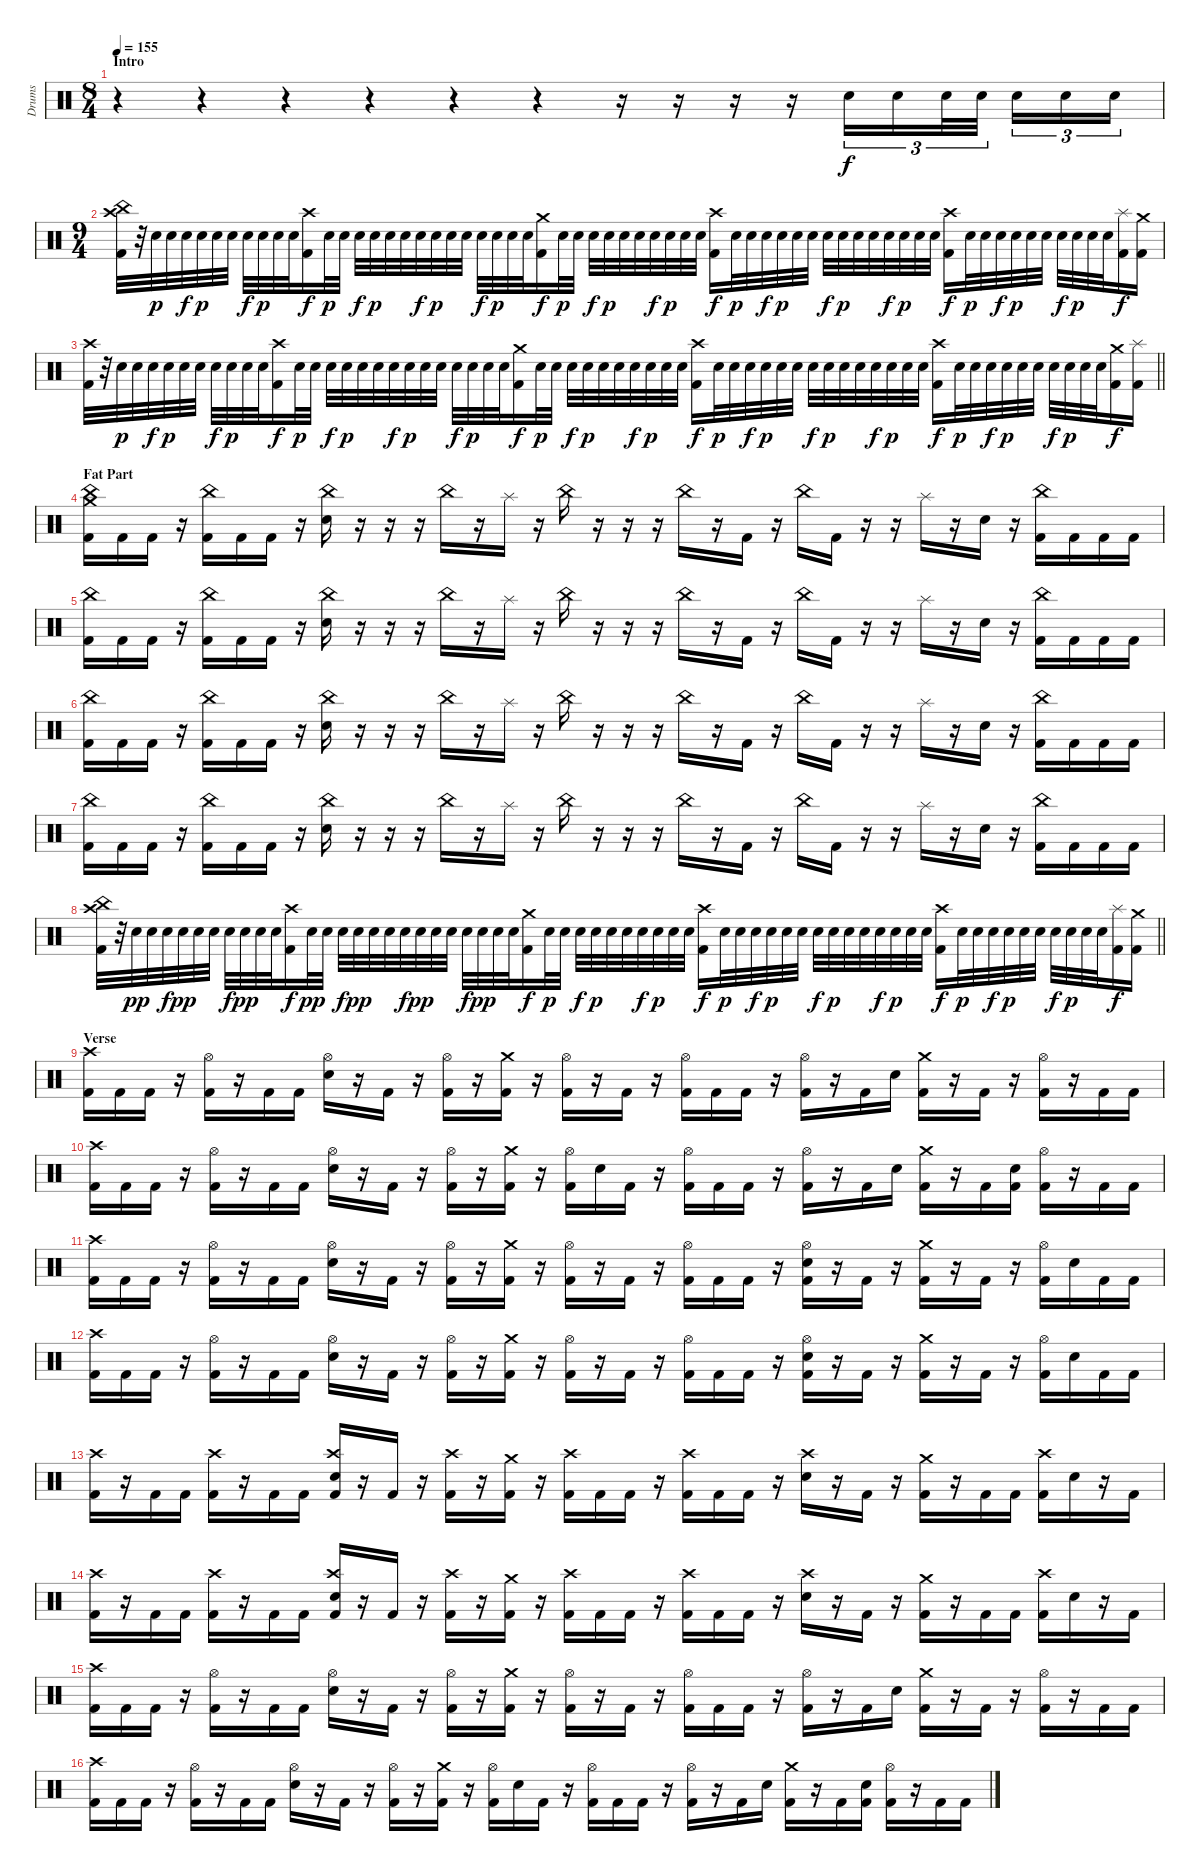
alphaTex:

\track ("Drums" "Drums") {instrument percussion}
\staff {score}
\articulation defaults
\ts (8 4)
\section ("" "Intro")
\tempo 155
\clef neutral
\ks c
r.4{dy f} r.4 r.4 r.4 r.4 r.4 r.16 r.16 r.16 r.16 "Electric Snare (hit)".16{tu (3 2)} "Electric Snare (hit)".16{tu (3 2)} "Electric Snare (hit)".32{tu (3 2)} "Electric Snare (hit)".32{tu (3 2) beam splitsecondary} "Electric Snare (hit)".16{tu (3 2)} "Electric Snare (hit)".16{tu (3 2)} "Electric Snare (hit)".16{tu (3 2)} |
\ts (9 4)
("Crash high (hit)" "China (hit)" "Kick (hit) 2").32 r.32 "Electric Snare (hit)".32{dy p} "Electric Snare (hit)".32 "Electric Snare (hit)".32{dy f} "Electric Snare (hit)".32{dy p} "Electric Snare (hit)".32 "Electric Snare (hit)".32 "Electric Snare (hit)".32{dy f} "Electric Snare (hit)".32{dy p} "Electric Snare (hit)".32 "Electric Snare (hit)".32 ("Crash high (hit)" "Kick (hit) 2").16{dy f} "Electric Snare (hit)".32{dy p} "Electric Snare (hit)".32 "Electric Snare (hit)".32{dy f} "Electric Snare (hit)".32{dy p} "Electric Snare (hit)".32 "Electric Snare (hit)".32 "Electric Snare (hit)".32{dy f} "Electric Snare (hit)".32{dy p} "Electric Snare (hit)".32 "Electric Snare (hit)".32 "Electric Snare (hit)".32{dy f} "Electric Snare (hit)".32{dy p} "Electric Snare (hit)".32 "Electric Snare (hit)".32 ("Crash medium (hit)" "Kick (hit) 2").16{dy f} "Electric Snare (hit)".32{dy p} "Electric Snare (hit)".32 "Electric Snare (hit)".32{dy f} "Electric Snare (hit)".32{dy p} "Electric Snare (hit)".32 "Electric Snare (hit)".32 "Electric Snare (hit)".32{dy f} "Electric Snare (hit)".32{dy p} "Electric Snare (hit)".32 "Electric Snare (hit)".32 ("Crash high (hit)" "Kick (hit) 2").16{dy f} "Electric Snare (hit)".32{dy p} "Electric Snare (hit)".32 "Electric Snare (hit)".32{dy f} "Electric Snare (hit)".32{dy p} "Electric Snare (hit)".32 "Electric Snare (hit)".32 "Electric Snare (hit)".32{dy f} "Electric Snare (hit)".32{dy p} "Electric Snare (hit)".32 "Electric Snare (hit)".32 "Electric Snare (hit)".32{dy f} "Electric Snare (hit)".32{dy p} "Electric Snare (hit)".32 "Electric Snare (hit)".32 ("Crash high (hit)" "Kick (hit) 2").16{dy f} "Electric Snare (hit)".32{dy p} "Electric Snare (hit)".32 "Electric Snare (hit)".32{dy f} "Electric Snare (hit)".32{dy p} "Electric Snare (hit)".32 "Electric Snare (hit)".32 "Electric Snare (hit)".32{dy f} "Electric Snare (hit)".32{dy p} "Electric Snare (hit)".32 "Electric Snare (hit)".32 ("Splash (hit)" "Kick (hit) 2").16{dy f} ("Crash medium (hit)" "Kick (hit) 2").16 |
\barLineRight lightlight
("Crash high (hit)" "Kick (hit) 2").32 r.32 "Electric Snare (hit)".32{dy p} "Electric Snare (hit)".32 "Electric Snare (hit)".32{dy f} "Electric Snare (hit)".32{dy p} "Electric Snare (hit)".32 "Electric Snare (hit)".32 "Electric Snare (hit)".32{dy f} "Electric Snare (hit)".32{dy p} "Electric Snare (hit)".32 "Electric Snare (hit)".32 ("Crash high (hit)" "Kick (hit) 2").16{dy f} "Electric Snare (hit)".32{dy p} "Electric Snare (hit)".32 "Electric Snare (hit)".32{dy f} "Electric Snare (hit)".32{dy p} "Electric Snare (hit)".32 "Electric Snare (hit)".32 "Electric Snare (hit)".32{dy f} "Electric Snare (hit)".32{dy p} "Electric Snare (hit)".32 "Electric Snare (hit)".32 "Electric Snare (hit)".32{dy f} "Electric Snare (hit)".32{dy p} "Electric Snare (hit)".32 "Electric Snare (hit)".32 ("Crash medium (hit)" "Kick (hit) 2").16{dy f} "Electric Snare (hit)".32{dy p} "Electric Snare (hit)".32 "Electric Snare (hit)".32{dy f} "Electric Snare (hit)".32{dy p} "Electric Snare (hit)".32 "Electric Snare (hit)".32 "Electric Snare (hit)".32{dy f} "Electric Snare (hit)".32{dy p} "Electric Snare (hit)".32 "Electric Snare (hit)".32 ("Crash high (hit)" "Kick (hit) 2").16{dy f} "Electric Snare (hit)".32{dy p} "Electric Snare (hit)".32 "Electric Snare (hit)".32{dy f} "Electric Snare (hit)".32{dy p} "Electric Snare (hit)".32 "Electric Snare (hit)".32 "Electric Snare (hit)".32{dy f} "Electric Snare (hit)".32{dy p} "Electric Snare (hit)".32 "Electric Snare (hit)".32 "Electric Snare (hit)".32{dy f} "Electric Snare (hit)".32{dy p} "Electric Snare (hit)".32 "Electric Snare (hit)".32 ("Crash high (hit)" "Kick (hit) 2").16{dy f} "Electric Snare (hit)".32{dy p} "Electric Snare (hit)".32 "Electric Snare (hit)".32{dy f} "Electric Snare (hit)".32{dy p} "Electric Snare (hit)".32 "Electric Snare (hit)".32 "Electric Snare (hit)".32{dy f} "Electric Snare (hit)".32{dy p} "Electric Snare (hit)".32 "Electric Snare (hit)".32 ("Crash medium (hit)" "Kick (hit) 2").16{dy f} ("Splash (hit)" "Kick (hit) 2").16 |
\section ("" "Fat Part")
("China (hit)" "Crash medium (hit)" "Kick (hit) 2").16 "Kick (hit) 2".16 "Kick (hit) 2".16 r.16 ("China (hit)" "Kick (hit) 2").16 "Kick (hit) 2".16 "Kick (hit) 2".16 r.16 ("China (hit)" "Electric Snare (hit)").16 r.16 r.16 r.16 "China (hit)".16 r.16 "Splash (hit)".16 r.16 "China (hit)".16 r.16 r.16 r.16 "China (hit)".16 r.16 "Kick (hit) 2".16 r.16 "China (hit)".16 "Kick (hit) 2".16 r.16 r.16 "Splash (hit)".16 r.16 "Electric Snare (hit)".16 r.16 ("China (hit)" "Kick (hit) 2").16 "Kick (hit) 2".16 "Kick (hit) 2".16 "Kick (hit) 2".16 |
("China (hit)" "Kick (hit) 2").16 "Kick (hit) 2".16 "Kick (hit) 2".16 r.16 ("China (hit)" "Kick (hit) 2").16 "Kick (hit) 2".16 "Kick (hit) 2".16 r.16 ("China (hit)" "Electric Snare (hit)").16 r.16 r.16 r.16 "China (hit)".16 r.16 "Splash (hit)".16 r.16 "China (hit)".16 r.16 r.16 r.16 "China (hit)".16 r.16 "Kick (hit) 2".16 r.16 "China (hit)".16 "Kick (hit) 2".16 r.16 r.16 "Splash (hit)".16 r.16 "Electric Snare (hit)".16 r.16 ("China (hit)" "Kick (hit) 2").16 "Kick (hit) 2".16 "Kick (hit) 2".16 "Kick (hit) 2".16 |
("China (hit)" "Kick (hit) 2").16 "Kick (hit) 2".16 "Kick (hit) 2".16 r.16 ("China (hit)" "Kick (hit) 2").16 "Kick (hit) 2".16 "Kick (hit) 2".16 r.16 ("China (hit)" "Electric Snare (hit)").16 r.16 r.16 r.16 "China (hit)".16 r.16 "Splash (hit)".16 r.16 "China (hit)".16 r.16 r.16 r.16 "China (hit)".16 r.16 "Kick (hit) 2".16 r.16 "China (hit)".16 "Kick (hit) 2".16 r.16 r.16 "Splash (hit)".16 r.16 "Electric Snare (hit)".16 r.16 ("China (hit)" "Kick (hit) 2").16 "Kick (hit) 2".16 "Kick (hit) 2".16 "Kick (hit) 2".16 |
("China (hit)" "Kick (hit) 2").16 "Kick (hit) 2".16 "Kick (hit) 2".16 r.16 ("China (hit)" "Kick (hit) 2").16 "Kick (hit) 2".16 "Kick (hit) 2".16 r.16 ("China (hit)" "Electric Snare (hit)").16 r.16 r.16 r.16 "China (hit)".16 r.16 "Splash (hit)".16 r.16 "China (hit)".16 r.16 r.16 r.16 "China (hit)".16 r.16 "Kick (hit) 2".16 r.16 "China (hit)".16 "Kick (hit) 2".16 r.16 r.16 "Splash (hit)".16 r.16 "Electric Snare (hit)".16 r.16 ("China (hit)" "Kick (hit) 2").16 "Kick (hit) 2".16 "Kick (hit) 2".16 "Kick (hit) 2".16 |
\barLineRight lightlight
("Crash high (hit)" "China (hit)" "Kick (hit) 2").32 r.32 "Electric Snare (hit)".32{dy pp} "Electric Snare (hit)".32 "Electric Snare (hit)".32{dy f} "Electric Snare (hit)".32{dy pp} "Electric Snare (hit)".32 "Electric Snare (hit)".32 "Electric Snare (hit)".32{dy f} "Electric Snare (hit)".32{dy pp} "Electric Snare (hit)".32 "Electric Snare (hit)".32 ("Crash high (hit)" "Kick (hit) 2").16{dy f} "Electric Snare (hit)".32{dy pp} "Electric Snare (hit)".32 "Electric Snare (hit)".32{dy f} "Electric Snare (hit)".32{dy pp} "Electric Snare (hit)".32 "Electric Snare (hit)".32 "Electric Snare (hit)".32{dy f} "Electric Snare (hit)".32{dy pp} "Electric Snare (hit)".32 "Electric Snare (hit)".32 "Electric Snare (hit)".32{dy f} "Electric Snare (hit)".32{dy pp} "Electric Snare (hit)".32 "Electric Snare (hit)".32 ("Crash medium (hit)" "Kick (hit) 2").16{dy f} "Electric Snare (hit)".32{dy p} "Electric Snare (hit)".32 "Electric Snare (hit)".32{dy f} "Electric Snare (hit)".32{dy p} "Electric Snare (hit)".32 "Electric Snare (hit)".32 "Electric Snare (hit)".32{dy f} "Electric Snare (hit)".32{dy p} "Electric Snare (hit)".32 "Electric Snare (hit)".32 ("Crash high (hit)" "Kick (hit) 2").16{dy f} "Electric Snare (hit)".32{dy p} "Electric Snare (hit)".32 "Electric Snare (hit)".32{dy f} "Electric Snare (hit)".32{dy p} "Electric Snare (hit)".32 "Electric Snare (hit)".32 "Electric Snare (hit)".32{dy f} "Electric Snare (hit)".32{dy p} "Electric Snare (hit)".32 "Electric Snare (hit)".32 "Electric Snare (hit)".32{dy f} "Electric Snare (hit)".32{dy p} "Electric Snare (hit)".32 "Electric Snare (hit)".32 ("Crash high (hit)" "Kick (hit) 2").16{dy f} "Electric Snare (hit)".32{dy p} "Electric Snare (hit)".32 "Electric Snare (hit)".32{dy f} "Electric Snare (hit)".32{dy p} "Electric Snare (hit)".32 "Electric Snare (hit)".32 "Electric Snare (hit)".32{dy f} "Electric Snare (hit)".32{dy p} "Electric Snare (hit)".32 "Electric Snare (hit)".32 ("Splash (hit)" "Kick (hit) 2").16{dy f} ("Crash medium (hit)" "Kick (hit) 2").16 |
\section ("" "Verse")
("Crash high (hit)" "Kick (hit) 2").16 "Kick (hit) 2".16 "Kick (hit) 2".16 r.16 ("Hi-Hat (open)" "Kick (hit) 2").16 r.16 "Kick (hit) 2".16 "Kick (hit) 2".16 ("Hi-Hat (open)" "Electric Snare (hit)").16 r.16 "Kick (hit) 2".16 r.16 ("Hi-Hat (open)" "Kick (hit) 2").16 r.16 ("Crash medium (hit)" "Kick (hit) 2").16 r.16 ("Hi-Hat (open)" "Kick (hit) 2").16 r.16 "Kick (hit) 2".16 r.16 ("Hi-Hat (open)" "Kick (hit) 2").16 "Kick (hit) 2".16 "Kick (hit) 2".16 r.16 ("Hi-Hat (open)" "Kick (hit) 2").16 r.16 "Kick (hit) 2".16 "Electric Snare (hit)".16 ("Crash medium (hit)" "Kick (hit) 2").16 r.16 "Kick (hit) 2".16 r.16 ("Hi-Hat (open)" "Kick (hit) 2").16 r.16 "Kick (hit) 2".16 "Kick (hit) 2".16 |
("Crash high (hit)" "Kick (hit) 2").16 "Kick (hit) 2".16 "Kick (hit) 2".16 r.16 ("Hi-Hat (open)" "Kick (hit) 2").16 r.16 "Kick (hit) 2".16 "Kick (hit) 2".16 ("Hi-Hat (open)" "Electric Snare (hit)").16 r.16 "Kick (hit) 2".16 r.16 ("Hi-Hat (open)" "Kick (hit) 2").16 r.16 ("Crash medium (hit)" "Kick (hit) 2").16 r.16 ("Hi-Hat (open)" "Kick (hit) 2").16 "Electric Snare (hit)".16 "Kick (hit) 2".16 r.16 ("Hi-Hat (open)" "Kick (hit) 2").16 "Kick (hit) 2".16 "Kick (hit) 2".16 r.16 ("Hi-Hat (open)" "Kick (hit) 2").16 r.16 "Kick (hit) 2".16 "Electric Snare (hit)".16 ("Crash medium (hit)" "Kick (hit) 2").16 r.16 "Kick (hit) 2".16 ("Electric Snare (hit)" "Kick (hit) 2").16 ("Hi-Hat (open)" "Kick (hit) 2").16 r.16 "Kick (hit) 2".16 "Kick (hit) 2".16 |
("Crash high (hit)" "Kick (hit) 2").16 "Kick (hit) 2".16 "Kick (hit) 2".16 r.16 ("Hi-Hat (open)" "Kick (hit) 2").16 r.16 "Kick (hit) 2".16 "Kick (hit) 2".16 ("Hi-Hat (open)" "Electric Snare (hit)").16 r.16 "Kick (hit) 2".16 r.16 ("Hi-Hat (open)" "Kick (hit) 2").16 r.16 ("Crash medium (hit)" "Kick (hit) 2").16 r.16 ("Hi-Hat (open)" "Kick (hit) 2").16 r.16 "Kick (hit) 2".16 r.16 ("Hi-Hat (open)" "Kick (hit) 2").16 "Kick (hit) 2".16 "Kick (hit) 2".16 r.16 ("Hi-Hat (open)" "Electric Snare (hit)" "Kick (hit) 2").16 r.16 "Kick (hit) 2".16 r.16 ("Crash medium (hit)" "Kick (hit) 2").16 r.16 "Kick (hit) 2".16 r.16 ("Hi-Hat (open)" "Kick (hit) 2").16 "Electric Snare (hit)".16 "Kick (hit) 2".16 "Kick (hit) 2".16 |
("Crash high (hit)" "Kick (hit) 2").16 "Kick (hit) 2".16 "Kick (hit) 2".16 r.16 ("Hi-Hat (open)" "Kick (hit) 2").16 r.16 "Kick (hit) 2".16 "Kick (hit) 2".16 ("Hi-Hat (open)" "Electric Snare (hit)").16 r.16 "Kick (hit) 2".16 r.16 ("Hi-Hat (open)" "Kick (hit) 2").16 r.16 ("Crash medium (hit)" "Kick (hit) 2").16 r.16 ("Hi-Hat (open)" "Kick (hit) 2").16 r.16 "Kick (hit) 2".16 r.16 ("Hi-Hat (open)" "Kick (hit) 2").16 "Kick (hit) 2".16 "Kick (hit) 2".16 r.16 ("Hi-Hat (open)" "Electric Snare (hit)" "Kick (hit) 2").16 r.16 "Kick (hit) 2".16 r.16 ("Crash medium (hit)" "Kick (hit) 2").16 r.16 "Kick (hit) 2".16 r.16 ("Hi-Hat (open)" "Kick (hit) 2").16 "Electric Snare (hit)".16 "Kick (hit) 2".16 "Kick (hit) 2".16 |
("Crash high (hit)" "Kick (hit) 2").16 r.16 "Kick (hit) 2".16 "Kick (hit) 2".16 ("Crash high (hit)" "Kick (hit) 2").16 r.16 "Kick (hit) 2".16 "Kick (hit) 2".16 ("Crash high (hit)" "Electric Snare (hit)" "Kick (hit) 2").16 r.16 "Kick (hit) 2".16 r.16 ("Crash high (hit)" "Kick (hit) 2").16 r.16 ("Crash medium (hit)" "Kick (hit) 2").16 r.16 ("Crash high (hit)" "Kick (hit) 2").16 "Kick (hit) 2".16 "Kick (hit) 2".16 r.16 ("Crash high (hit)" "Kick (hit) 2").16 "Kick (hit) 2".16 "Kick (hit) 2".16 r.16 ("Crash high (hit)" "Electric Snare (hit)").16 r.16 "Kick (hit) 2".16 r.16 ("Crash medium (hit)" "Kick (hit) 2").16 r.16 "Kick (hit) 2".16 "Kick (hit) 2".16 ("Crash high (hit)" "Kick (hit) 2").16 "Electric Snare (hit)".16 r.16 "Kick (hit) 2".16 |
("Crash high (hit)" "Kick (hit) 2").16 r.16 "Kick (hit) 2".16 "Kick (hit) 2".16 ("Crash high (hit)" "Kick (hit) 2").16 r.16 "Kick (hit) 2".16 "Kick (hit) 2".16 ("Crash high (hit)" "Electric Snare (hit)" "Kick (hit) 2").16 r.16 "Kick (hit) 2".16 r.16 ("Crash high (hit)" "Kick (hit) 2").16 r.16 ("Crash medium (hit)" "Kick (hit) 2").16 r.16 ("Crash high (hit)" "Kick (hit) 2").16 "Kick (hit) 2".16 "Kick (hit) 2".16 r.16 ("Crash high (hit)" "Kick (hit) 2").16 "Kick (hit) 2".16 "Kick (hit) 2".16 r.16 ("Crash high (hit)" "Electric Snare (hit)").16 r.16 "Kick (hit) 2".16 r.16 ("Crash medium (hit)" "Kick (hit) 2").16 r.16 "Kick (hit) 2".16 "Kick (hit) 2".16 ("Crash high (hit)" "Kick (hit) 2").16 "Electric Snare (hit)".16 r.16 "Kick (hit) 2".16 |
("Crash high (hit)" "Kick (hit) 2").16 "Kick (hit) 2".16 "Kick (hit) 2".16 r.16 ("Hi-Hat (open)" "Kick (hit) 2").16 r.16 "Kick (hit) 2".16 "Kick (hit) 2".16 ("Hi-Hat (open)" "Electric Snare (hit)").16 r.16 "Kick (hit) 2".16 r.16 ("Hi-Hat (open)" "Kick (hit) 2").16 r.16 ("Crash medium (hit)" "Kick (hit) 2").16 r.16 ("Hi-Hat (open)" "Kick (hit) 2").16 r.16 "Kick (hit) 2".16 r.16 ("Hi-Hat (open)" "Kick (hit) 2").16 "Kick (hit) 2".16 "Kick (hit) 2".16 r.16 ("Hi-Hat (open)" "Kick (hit) 2").16 r.16 "Kick (hit) 2".16 "Electric Snare (hit)".16 ("Crash medium (hit)" "Kick (hit) 2").16 r.16 "Kick (hit) 2".16 r.16 ("Hi-Hat (open)" "Kick (hit) 2").16 r.16 "Kick (hit) 2".16 "Kick (hit) 2".16 |
("Crash high (hit)" "Kick (hit) 2").16 "Kick (hit) 2".16 "Kick (hit) 2".16 r.16 ("Hi-Hat (open)" "Kick (hit) 2").16 r.16 "Kick (hit) 2".16 "Kick (hit) 2".16 ("Hi-Hat (open)" "Electric Snare (hit)").16 r.16 "Kick (hit) 2".16 r.16 ("Hi-Hat (open)" "Kick (hit) 2").16 r.16 ("Crash medium (hit)" "Kick (hit) 2").16 r.16 ("Hi-Hat (open)" "Kick (hit) 2").16 "Electric Snare (hit)".16 "Kick (hit) 2".16 r.16 ("Hi-Hat (open)" "Kick (hit) 2").16 "Kick (hit) 2".16 "Kick (hit) 2".16 r.16 ("Hi-Hat (open)" "Kick (hit) 2").16 r.16 "Kick (hit) 2".16 "Electric Snare (hit)".16 ("Crash medium (hit)" "Kick (hit) 2").16 r.16 "Kick (hit) 2".16 ("Electric Snare (hit)" "Kick (hit) 2").16 ("Hi-Hat (open)" "Kick (hit) 2").16 r.16 "Kick (hit) 2".16 "Kick (hit) 2".16
